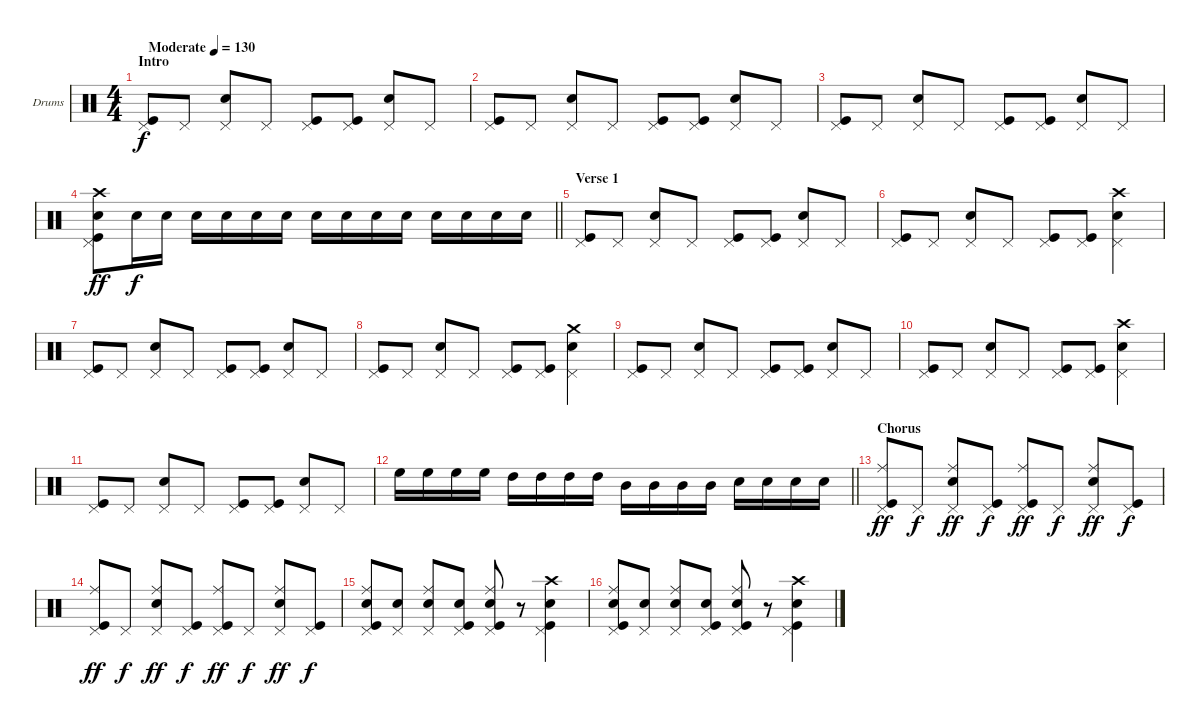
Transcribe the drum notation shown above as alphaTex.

\bracketExtendMode groupsimilarinstruments
\firstSystemTrackNameOrientation horizontal
\otherSystemsTrackNameOrientation horizontal
\track ("Drumkit" "Drums") {instrument percussion}
\staff {score}
\articulation defaults
\ts (4 4)
\beaming (8 2 2 2 2)
\section ("" "Intro")
\tempo (130 "Moderate")
\clef neutral
\ks c
("Pedal Hi-Hat (hit)" "Kick (hit)").8{dy f} "Pedal Hi-Hat (hit)".8 ("Snare (hit) 2" "Pedal Hi-Hat (hit)").8 "Pedal Hi-Hat (hit)".8 ("Pedal Hi-Hat (hit)" "Kick (hit)").8 ("Pedal Hi-Hat (hit)" "Kick (hit)").8 ("Snare (hit) 2" "Pedal Hi-Hat (hit)").8 "Pedal Hi-Hat (hit)".8 |
("Pedal Hi-Hat (hit)" "Kick (hit)").8 "Pedal Hi-Hat (hit)".8 ("Snare (hit) 2" "Pedal Hi-Hat (hit)").8 "Pedal Hi-Hat (hit)".8 ("Pedal Hi-Hat (hit)" "Kick (hit)").8 ("Pedal Hi-Hat (hit)" "Kick (hit)").8 ("Snare (hit) 2" "Pedal Hi-Hat (hit)").8 "Pedal Hi-Hat (hit)".8 |
("Pedal Hi-Hat (hit)" "Kick (hit)").8 "Pedal Hi-Hat (hit)".8 ("Snare (hit) 2" "Pedal Hi-Hat (hit)").8 "Pedal Hi-Hat (hit)".8 ("Pedal Hi-Hat (hit)" "Kick (hit)").8 ("Pedal Hi-Hat (hit)" "Kick (hit)").8 ("Snare (hit) 2" "Pedal Hi-Hat (hit)").8 "Pedal Hi-Hat (hit)".8 |
\barLineRight lightlight
("Crash high (hit)" "Snare (hit) 2" "Pedal Hi-Hat (hit)" "Kick (hit)").8{dy ff} "Snare (hit) 2".16{dy f} "Snare (hit) 2".16 "Snare (hit) 2".16 "Snare (hit) 2".16 "Snare (hit) 2".16 "Snare (hit) 2".16 "Snare (hit) 2".16 "Snare (hit) 2".16 "Snare (hit) 2".16 "Snare (hit) 2".16 "Snare (hit) 2".16 "Snare (hit) 2".16 "Snare (hit) 2".16 "Snare (hit) 2".16 |
\section ("" "Verse 1")
("Pedal Hi-Hat (hit)" "Kick (hit)").8 "Pedal Hi-Hat (hit)".8 ("Snare (hit) 2" "Pedal Hi-Hat (hit)").8 "Pedal Hi-Hat (hit)".8 ("Pedal Hi-Hat (hit)" "Kick (hit)").8 ("Pedal Hi-Hat (hit)" "Kick (hit)").8 ("Snare (hit) 2" "Pedal Hi-Hat (hit)").8 "Pedal Hi-Hat (hit)".8 |
("Pedal Hi-Hat (hit)" "Kick (hit)").8 "Pedal Hi-Hat (hit)".8 ("Snare (hit) 2" "Pedal Hi-Hat (hit)").8 "Pedal Hi-Hat (hit)".8 ("Pedal Hi-Hat (hit)" "Kick (hit)").8 ("Pedal Hi-Hat (hit)" "Kick (hit)").8 ("Crash high (hit)" "Snare (hit) 2" "Pedal Hi-Hat (hit)").4 |
("Pedal Hi-Hat (hit)" "Kick (hit)").8 "Pedal Hi-Hat (hit)".8 ("Snare (hit) 2" "Pedal Hi-Hat (hit)").8 "Pedal Hi-Hat (hit)".8 ("Pedal Hi-Hat (hit)" "Kick (hit)").8 ("Pedal Hi-Hat (hit)" "Kick (hit)").8 ("Snare (hit) 2" "Pedal Hi-Hat (hit)").8 "Pedal Hi-Hat (hit)".8 |
("Pedal Hi-Hat (hit)" "Kick (hit)").8 "Pedal Hi-Hat (hit)".8 ("Snare (hit) 2" "Pedal Hi-Hat (hit)").8 "Pedal Hi-Hat (hit)".8 ("Pedal Hi-Hat (hit)" "Kick (hit)").8 ("Pedal Hi-Hat (hit)" "Kick (hit)").8 ("Crash medium (hit)" "Snare (hit) 2" "Pedal Hi-Hat (hit)").4 |
("Pedal Hi-Hat (hit)" "Kick (hit)").8 "Pedal Hi-Hat (hit)".8 ("Snare (hit) 2" "Pedal Hi-Hat (hit)").8 "Pedal Hi-Hat (hit)".8 ("Pedal Hi-Hat (hit)" "Kick (hit)").8 ("Pedal Hi-Hat (hit)" "Kick (hit)").8 ("Snare (hit) 2" "Pedal Hi-Hat (hit)").8 "Pedal Hi-Hat (hit)".8 |
("Pedal Hi-Hat (hit)" "Kick (hit)").8 "Pedal Hi-Hat (hit)".8 ("Snare (hit) 2" "Pedal Hi-Hat (hit)").8 "Pedal Hi-Hat (hit)".8 ("Pedal Hi-Hat (hit)" "Kick (hit)").8 ("Pedal Hi-Hat (hit)" "Kick (hit)").8 ("Crash high (hit)" "Snare (hit) 2" "Pedal Hi-Hat (hit)").4 |
("Pedal Hi-Hat (hit)" "Kick (hit)").8 "Pedal Hi-Hat (hit)".8 ("Snare (hit) 2" "Pedal Hi-Hat (hit)").8 "Pedal Hi-Hat (hit)".8 ("Pedal Hi-Hat (hit)" "Kick (hit)").8 ("Pedal Hi-Hat (hit)" "Kick (hit)").8 ("Snare (hit) 2" "Pedal Hi-Hat (hit)").8 "Pedal Hi-Hat (hit)".8 |
\barLineRight lightlight "High Floor Tom (hit)".16 "High Floor Tom (hit)".16 "High Floor Tom (hit)".16 "High Floor Tom (hit)".16 "High Tom (hit)".16 "High Tom (hit)".16 "High Tom (hit)".16 "High Tom (hit)".16 "Mid Tom (hit)".16 "Mid Tom (hit)".16 "Mid Tom (hit)".16 "Mid Tom (hit)".16 "Snare (hit) 2".16 "Snare (hit) 2".16 "Snare (hit) 2".16 "Snare (hit) 2".16
|
\section ("" "Chorus")
("Ride (middle)" "Pedal Hi-Hat (hit)" "Kick (hit)").8{dy ff} "Pedal Hi-Hat (hit)".8{dy f} ("Ride (middle)" "Snare (hit) 2" "Pedal Hi-Hat (hit)").8{dy ff} ("Pedal Hi-Hat (hit)" "Kick (hit)").8{dy f} ("Ride (middle)" "Pedal Hi-Hat (hit)" "Kick (hit)").8{dy ff} "Pedal Hi-Hat (hit)".8{dy f} ("Ride (middle)" "Snare (hit) 2" "Pedal Hi-Hat (hit)").8{dy ff} ("Pedal Hi-Hat (hit)" "Kick (hit)").8{dy f} |
("Ride (middle)" "Pedal Hi-Hat (hit)" "Kick (hit)").8{dy ff} "Pedal Hi-Hat (hit)".8{dy f} ("Ride (middle)" "Snare (hit) 2" "Pedal Hi-Hat (hit)").8{dy ff} ("Pedal Hi-Hat (hit)" "Kick (hit)").8{dy f} ("Ride (middle)" "Pedal Hi-Hat (hit)" "Kick (hit)").8{dy ff} "Pedal Hi-Hat (hit)".8{dy f} ("Ride (middle)" "Snare (hit) 2" "Pedal Hi-Hat (hit)").8{dy ff} ("Pedal Hi-Hat (hit)" "Kick (hit)").8{dy f} |
("Ride (middle)" "Pedal Hi-Hat (hit)" "Snare (hit) 2" "Kick (hit)").8 ("Pedal Hi-Hat (hit)" "Snare (hit) 2").8 ("Ride (middle)" "Pedal Hi-Hat (hit)" "Snare (hit) 2").8 ("Pedal Hi-Hat (hit)" "Snare (hit) 2" "Kick (hit)").8 ("Ride (middle)" "Pedal Hi-Hat (hit)" "Snare (hit) 2" "Kick (hit)").8 r.8 ("Crash high (hit)" "Pedal Hi-Hat (hit)" "Snare (hit) 2" "Kick (hit)").4 |
("Ride (middle)" "Pedal Hi-Hat (hit)" "Snare (hit) 2" "Kick (hit)").8 ("Pedal Hi-Hat (hit)" "Snare (hit) 2").8 ("Ride (middle)" "Pedal Hi-Hat (hit)" "Snare (hit) 2").8 ("Pedal Hi-Hat (hit)" "Snare (hit) 2" "Kick (hit)").8 ("Ride (middle)" "Pedal Hi-Hat (hit)" "Snare (hit) 2" "Kick (hit)").8 r.8 ("Crash high (hit)" "Pedal Hi-Hat (hit)" "Snare (hit) 2" "Kick (hit)").4
